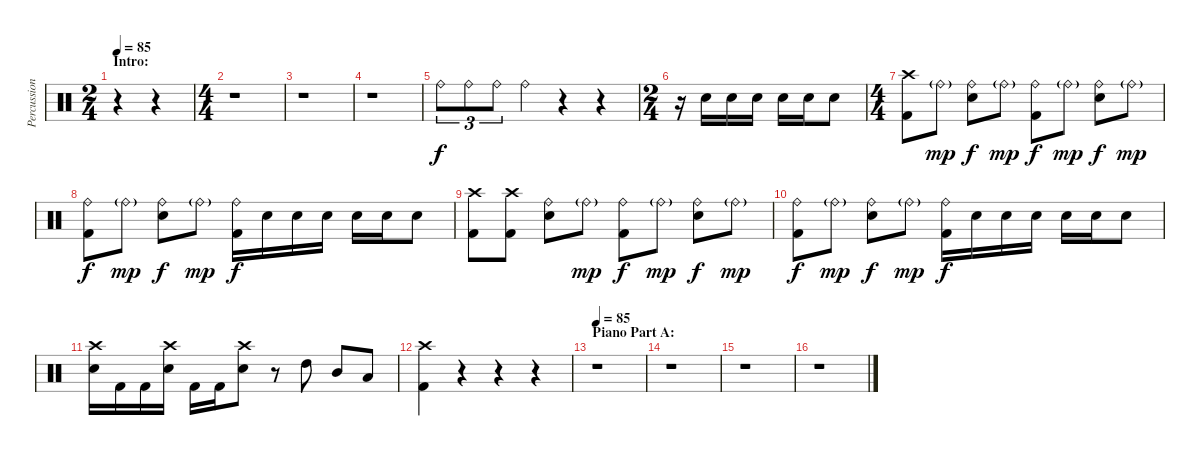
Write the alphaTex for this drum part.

\track ("Percussion" "Percussion") {instrument percussion}
\staff {score}
\articulation defaults
\ts (2 4)
\section ("" "Intro:")
\tempo 85
\clef neutral
\ks c
r.4{dy f} r.4 |
\ts (4 4)
r.1 |
r.1 |
r.1 |
"Ride (bell)".8{tu (3 2)} "Ride (bell)".8{tu (3 2)} "Ride (bell)".8{tu (3 2)} "Ride (bell)".4 r.4 r.4 |
\ts (2 4)
r.16 "Electric Snare (hit)".16 "Electric Snare (hit)".16 "Electric Snare (hit)".16 "Electric Snare (hit)".16 "Electric Snare (hit)".16 "Electric Snare (hit)".8 |
\ts (4 4)
("Crash high (hit)" "Kick (hit) 2").8 "Ride (bell)"{g}.8{dy mp} ("Ride (bell)" "Electric Snare (hit)").8{dy f} "Ride (bell)"{g}.8{dy mp} ("Ride (bell)" "Kick (hit) 2").8{dy f} "Ride (bell)"{g}.8{dy mp} ("Ride (bell)" "Electric Snare (hit)").8{dy f} "Ride (bell)"{g}.8{dy mp} |
("Ride (bell)" "Kick (hit) 2").8{dy f} "Ride (bell)"{g}.8{dy mp} ("Ride (bell)" "Electric Snare (hit)").8{dy f} "Ride (bell)"{g}.8{dy mp} ("Ride (bell)" "Kick (hit) 2").16{dy f} "Electric Snare (hit)".16 "Electric Snare (hit)".16 "Electric Snare (hit)".16 "Electric Snare (hit)".16 "Electric Snare (hit)".16 "Electric Snare (hit)".8 |
("Crash high (hit)" "Kick (hit) 2").8 ("Crash high (hit)" "Kick (hit) 2").8 ("Ride (bell)" "Electric Snare (hit)").8 "Ride (bell)"{g}.8{dy mp} ("Ride (bell)" "Kick (hit) 2").8{dy f} "Ride (bell)"{g}.8{dy mp} ("Ride (bell)" "Electric Snare (hit)").8{dy f} "Ride (bell)"{g}.8{dy mp} |
("Ride (bell)" "Kick (hit) 2").8{dy f} "Ride (bell)"{g}.8{dy mp} ("Ride (bell)" "Electric Snare (hit)").8{dy f} "Ride (bell)"{g}.8{dy mp} ("Ride (bell)" "Kick (hit) 2").16{dy f} "Electric Snare (hit)".16 "Electric Snare (hit)".16 "Electric Snare (hit)".16 "Electric Snare (hit)".16 "Electric Snare (hit)".16 "Electric Snare (hit)".8 |
("Crash high (hit)" "Electric Snare (hit)").16 "Kick (hit) 2".16 "Kick (hit) 2".16 ("Crash high (hit)" "Electric Snare (hit)").16 "Kick (hit) 2".16 "Kick (hit) 2".16 ("Crash high (hit)" "Electric Snare (hit)").8 r.8 "High Tom (hit)".8 "Mid Tom (hit)".8 "Low Tom (hit)".8 |
("Crash high (hit)" "Kick (hit) 2").4 r.4 r.4 r.4 |
\section ("" "Piano Part A:")
\tempo 85
r.1 |
r.1 |
r.1 |
r.1
